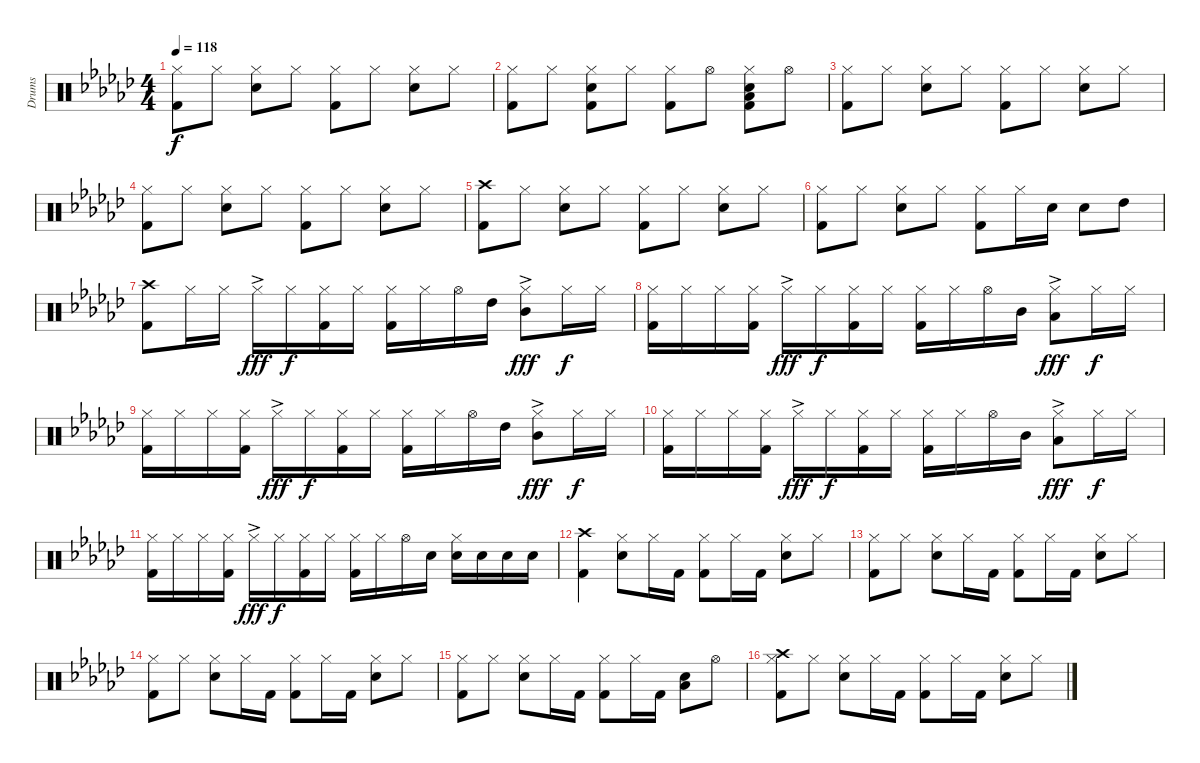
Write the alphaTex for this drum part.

\track ("Drums" "Drums") {instrument percussion}
\staff {score}
\articulation defaults
\ts (4 4)
\tempo 118
\clef neutral
\ks ebminor
("Hi-Hat (closed)" "Kick (hit) 2").8{dy f} "Hi-Hat (closed)".8 ("Hi-Hat (closed)" "Electric Snare (hit)").8 "Hi-Hat (closed)".8 ("Hi-Hat (closed)" "Kick (hit) 2").8 "Hi-Hat (closed)".8 ("Hi-Hat (closed)" "Electric Snare (hit)").8 "Hi-Hat (closed)".8 |
("Hi-Hat (closed)" "Kick (hit) 2").8 "Hi-Hat (closed)".8 ("Hi-Hat (closed)" "Electric Snare (hit)" "Kick (hit) 2").8 "Hi-Hat (closed)".8 ("Hi-Hat (closed)" "Kick (hit) 2").8 "Hi-Hat (open)".8 ("Hi-Hat (closed)" "Electric Snare (hit)" "Low Tom (hit)" "Kick (hit) 2").8 "Hi-Hat (open)".8 |
("Hi-Hat (closed)" "Kick (hit) 2").8 "Hi-Hat (closed)".8 ("Hi-Hat (closed)" "Electric Snare (hit)").8 "Hi-Hat (closed)".8 ("Hi-Hat (closed)" "Kick (hit) 2").8 "Hi-Hat (closed)".8 ("Hi-Hat (closed)" "Electric Snare (hit)").8 "Hi-Hat (closed)".8 |
("Hi-Hat (closed)" "Kick (hit) 2").8 "Hi-Hat (closed)".8 ("Hi-Hat (closed)" "Electric Snare (hit)").8 "Hi-Hat (closed)".8 ("Hi-Hat (closed)" "Kick (hit) 2").8 "Hi-Hat (closed)".8 ("Hi-Hat (closed)" "Electric Snare (hit)").8 "Hi-Hat (closed)".8 |
("Crash high (hit)" "Kick (hit) 2").8 "Hi-Hat (closed)".8 ("Hi-Hat (closed)" "Electric Snare (hit)").8 "Hi-Hat (closed)".8 ("Hi-Hat (closed)" "Kick (hit) 2").8 "Hi-Hat (closed)".8 ("Hi-Hat (closed)" "Electric Snare (hit)").8 "Hi-Hat (closed)".8 |
("Hi-Hat (closed)" "Kick (hit) 2").8 "Hi-Hat (closed)".8 ("Hi-Hat (closed)" "Electric Snare (hit)").8 "Hi-Hat (closed)".8 ("Hi-Hat (closed)" "Kick (hit) 2").8 "Hi-Hat (closed)".16 "Electric Snare (hit)".16 "Electric Snare (hit)".8 "High Tom (hit)".8 |
("Crash high (hit)" "Kick (hit) 2").8 "Hi-Hat (closed)".16 "Hi-Hat (closed)".16 "Hi-Hat (closed)"{ac}.16{dy fff} "Hi-Hat (closed)".16{dy f} ("Hi-Hat (closed)" "Kick (hit) 2").16 "Hi-Hat (closed)".16 ("Hi-Hat (closed)" "Kick (hit) 2").16 "Hi-Hat (closed)".16 "Hi-Hat (open)".16 "High Tom (hit)".16 ("Hi-Hat (closed)"{ac} "Mid Tom (hit)"{ac}).8{dy fff} "Hi-Hat (closed)".16{dy f} "Hi-Hat (closed)".16 |
("Hi-Hat (closed)" "Kick (hit) 2").16 "Hi-Hat (closed)".16 "Hi-Hat (closed)".16 ("Hi-Hat (closed)" "Kick (hit) 2").16 "Hi-Hat (closed)"{ac}.16{dy fff} "Hi-Hat (closed)".16{dy f} ("Hi-Hat (closed)" "Kick (hit) 2").16 "Hi-Hat (closed)".16 ("Hi-Hat (closed)" "Kick (hit) 2").16 "Hi-Hat (closed)".16 "Hi-Hat (open)".16 "Mid Tom (hit)".16 ("Hi-Hat (closed)"{ac} "Low Tom (hit)"{ac}).8{dy fff} "Hi-Hat (closed)".16{dy f} "Hi-Hat (closed)".16 |
("Hi-Hat (closed)" "Kick (hit) 2").16 "Hi-Hat (closed)".16 "Hi-Hat (closed)".16 ("Hi-Hat (closed)" "Kick (hit) 2").16 "Hi-Hat (closed)"{ac}.16{dy fff} "Hi-Hat (closed)".16{dy f} ("Hi-Hat (closed)" "Kick (hit) 2").16 "Hi-Hat (closed)".16 ("Hi-Hat (closed)" "Kick (hit) 2").16 "Hi-Hat (closed)".16 "Hi-Hat (open)".16 "High Tom (hit)".16 ("Hi-Hat (closed)"{ac} "Mid Tom (hit)"{ac}).8{dy fff} "Hi-Hat (closed)".16{dy f} "Hi-Hat (closed)".16 |
("Hi-Hat (closed)" "Kick (hit) 2").16 "Hi-Hat (closed)".16 "Hi-Hat (closed)".16 ("Hi-Hat (closed)" "Kick (hit) 2").16 "Hi-Hat (closed)"{ac}.16{dy fff} "Hi-Hat (closed)".16{dy f} ("Hi-Hat (closed)" "Kick (hit) 2").16 "Hi-Hat (closed)".16 ("Hi-Hat (closed)" "Kick (hit) 2").16 "Hi-Hat (closed)".16 "Hi-Hat (open)".16 "Mid Tom (hit)".16 ("Hi-Hat (closed)"{ac} "Low Tom (hit)"{ac}).8{dy fff} "Hi-Hat (closed)".16{dy f} "Hi-Hat (closed)".16 |
("Hi-Hat (closed)" "Kick (hit) 2").16 "Hi-Hat (closed)".16 "Hi-Hat (closed)".16 ("Hi-Hat (closed)" "Kick (hit) 2").16 "Hi-Hat (closed)"{ac}.16{dy fff} "Hi-Hat (closed)".16{dy f} ("Hi-Hat (closed)" "Kick (hit) 2").16 "Hi-Hat (closed)".16 ("Hi-Hat (closed)" "Kick (hit) 2").16 "Hi-Hat (closed)".16 "Hi-Hat (open)".16 "Electric Snare (hit)".16 ("Hi-Hat (closed)" "Electric Snare (hit)").16 "Electric Snare (hit)".16 "Electric Snare (hit)".16 "Electric Snare (hit)".16 |
("Crash high (hit)" "Kick (hit) 2").4 ("Hi-Hat (closed)" "Electric Snare (hit)").8 "Hi-Hat (closed)".16 "Kick (hit) 2".16 ("Hi-Hat (closed)" "Kick (hit) 2").8 "Hi-Hat (closed)".16 "Kick (hit) 2".16 ("Hi-Hat (closed)" "Electric Snare (hit)").8 "Hi-Hat (closed)".8 |
("Hi-Hat (closed)" "Kick (hit) 2").8 "Hi-Hat (closed)".8 ("Hi-Hat (closed)" "Electric Snare (hit)").8 "Hi-Hat (closed)".16 "Kick (hit) 2".16 ("Hi-Hat (closed)" "Kick (hit) 2").8 "Hi-Hat (closed)".16 "Kick (hit) 2".16 ("Hi-Hat (closed)" "Electric Snare (hit)").8 "Hi-Hat (closed)".8 |
("Hi-Hat (closed)" "Kick (hit) 2").8 "Hi-Hat (closed)".8 ("Hi-Hat (closed)" "Electric Snare (hit)").8 "Hi-Hat (closed)".16 "Kick (hit) 2".16 ("Hi-Hat (closed)" "Kick (hit) 2").8 "Hi-Hat (closed)".16 "Kick (hit) 2".16 ("Hi-Hat (closed)" "Electric Snare (hit)").8 "Hi-Hat (closed)".8 |
("Hi-Hat (closed)" "Kick (hit) 2").8 "Hi-Hat (closed)".8 ("Hi-Hat (closed)" "Electric Snare (hit)").8 "Hi-Hat (closed)".16 "Kick (hit) 2".16 ("Hi-Hat (closed)" "Kick (hit) 2").8 "Hi-Hat (closed)".16 "Kick (hit) 2".16 ("Electric Snare (hit)" "Low Tom (hit)").8 "Hi-Hat (open)".8 |
("Hi-Hat (closed)" "Crash high (hit)" "Kick (hit) 2").8 "Hi-Hat (closed)".8 ("Hi-Hat (closed)" "Electric Snare (hit)").8 "Hi-Hat (closed)".16 "Kick (hit) 2".16 ("Hi-Hat (closed)" "Kick (hit) 2").8 "Hi-Hat (closed)".16 "Kick (hit) 2".16 ("Hi-Hat (closed)" "Electric Snare (hit)").8 "Hi-Hat (closed)".8
